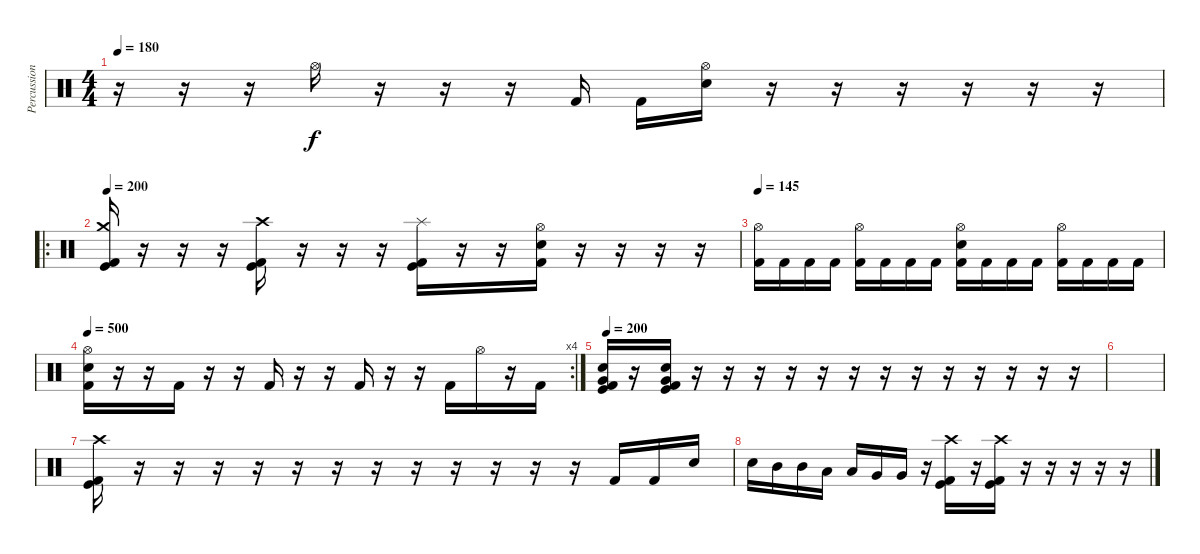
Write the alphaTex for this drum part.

\track ("Percussion" "Percussion") {instrument percussion}
\staff {score}
\articulation defaults
\ts (4 4)
\tempo 180
\clef neutral
\ks c
r.16{dy f} r.16 r.16 "Hi-Hat (open)".16 r.16 r.16 r.16 "Kick (hit) 2".16 "Kick (hit) 2".16 ("Electric Snare (hit)" "Hi-Hat (open)").16 r.16 r.16 r.16 r.16 r.16 r.16 |
\ro
\tempo 200
("Crash medium (hit)" "Kick (hit)" "Kick (hit) 2").16 r.16 r.16 r.16 ("Crash high (hit)" "Kick (hit)" "Kick (hit) 2").16 r.16 r.16 r.16 ("Splash (hit)" "Kick (hit)" "Kick (hit) 2").16 r.16 r.16 ("Hi-Hat (open)" "Electric Snare (hit)" "Kick (hit) 2").16 r.16 r.16 r.16 r.16 |
\tempo 145
("Hi-Hat (open)" "Kick (hit) 2").16 "Kick (hit) 2".16 "Kick (hit) 2".16 "Kick (hit) 2".16 ("Hi-Hat (open)" "Kick (hit) 2").16 "Kick (hit) 2".16 "Kick (hit) 2".16 "Kick (hit) 2".16 ("Hi-Hat (open)" "Electric Snare (hit)" "Kick (hit) 2").16 "Kick (hit) 2".16 "Kick (hit) 2".16 "Kick (hit) 2".16 ("Hi-Hat (open)" "Kick (hit) 2").16 "Kick (hit) 2".16 "Kick (hit) 2".16 "Kick (hit) 2".16 |
\rc 4
\tempo 500
("Hi-Hat (open)" "Electric Snare (hit)" "Kick (hit) 2").16 r.16 r.16 "Kick (hit) 2".16 r.16 r.16 "Kick (hit) 2".16 r.16 r.16 "Kick (hit) 2".16 r.16 r.16 "Kick (hit) 2".16 "Hi-Hat (open)".16 r.16 "Kick (hit) 2".16 |
\tempo 210
\tempo 200
("Snare (hit) 2" "Very Low Tom (hit)" "Kick (hit)" "Kick (hit) 2").16 r.16 ("Snare (hit) 2" "Very Low Tom (hit)" "Kick (hit)" "Kick (hit) 2").16 r.16 r.16 r.16 r.16 r.16 r.16 r.16 r.16 r.16 r.16 r.16 r.16 r.16 |
|
("Crash high (hit)" "Kick (hit)" "Kick (hit) 2").16 r.16 r.16 r.16 r.16 r.16 r.16 r.16 r.16 r.16 r.16 r.16 r.16 "Kick (hit) 2".16 "Kick (hit) 2".16 "Electric Snare (hit)".16 |
"Electric Snare (hit)".16 "Mid Tom (hit)".16 "Mid Tom (hit)".16 "Low Tom (hit)".16 "Low Tom (hit)".16 "Very Low Tom (hit)".16 "Very Low Tom (hit)".16 r.16 ("Crash high (hit)" "Kick (hit)" "Kick (hit) 2").16 r.16 ("Crash high (hit)" "Kick (hit)" "Kick (hit) 2").16 r.16 r.16 r.16 r.16 r.16
